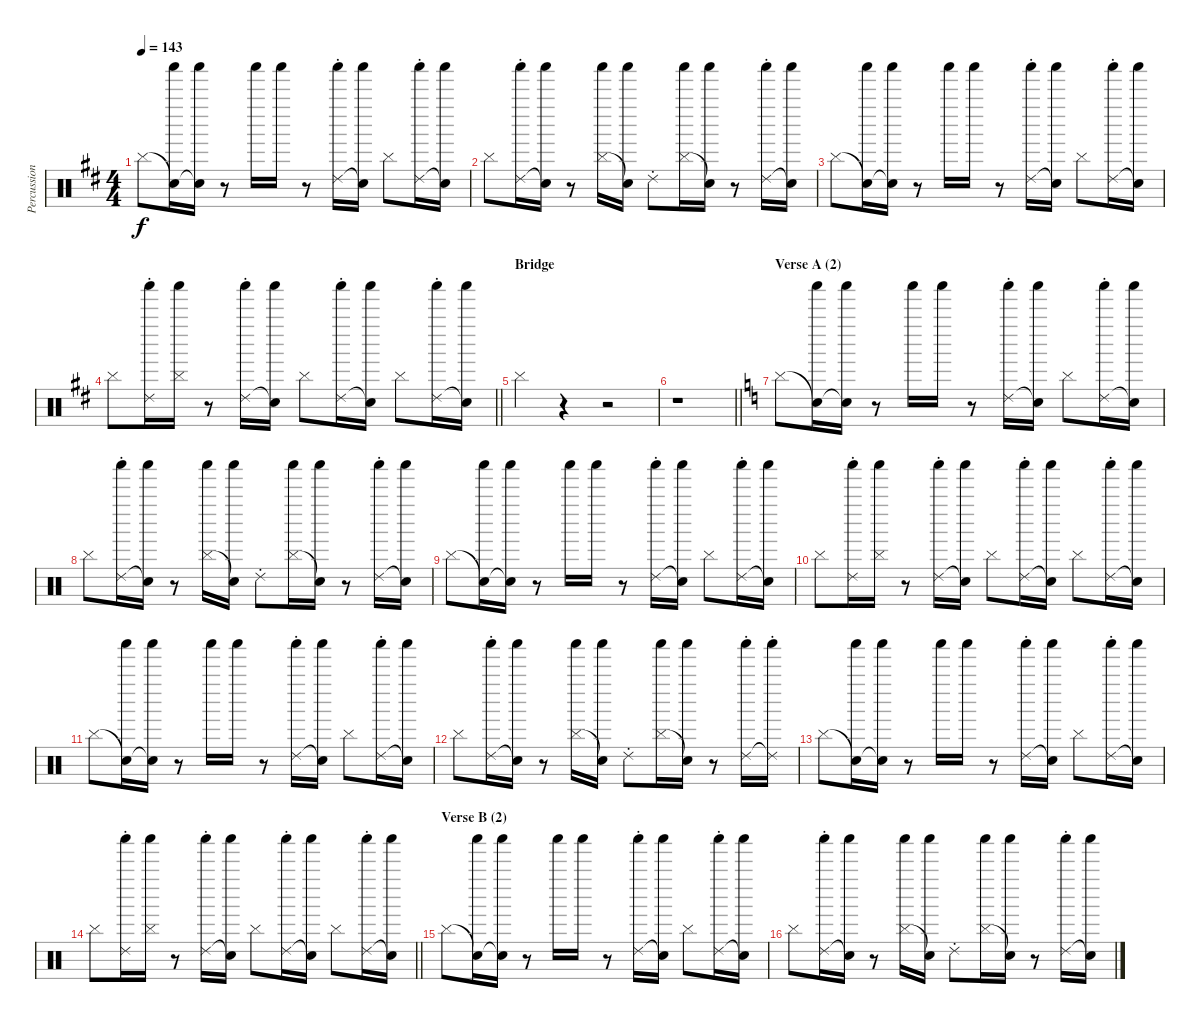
\track ("Percussion" "Percussion") {instrument percussion}
\staff {score}
\articulation defaults
\ts (4 4)
\tempo 143
\clef neutral
\ks d "Cymbal (hit)".8{dy f}
("Snare (hit)"{t} "Shaker (hit)").16 ("Snare (hit)"{t} "Shaker (hit)").16 r.8 "Shaker (hit)".16 "Shaker (hit)".16 r.8 ("Ride (choke) 2" "Shaker (hit)").16 ("Snare (hit)"{t} "Shaker (hit)").16 "Cymbal (hit)".8 ("Ride (choke) 2" "Shaker (hit)").16 ("Snare (hit)"{t} "Shaker (hit)").16 |
"Cymbal (hit)".8 ("Ride (choke) 2" "Shaker (hit)").16 ("Snare (hit)"{t} "Shaker (hit)").16 r.8 ("Cymbal (hit)" "Shaker (hit)").16 ("Snare (hit)"{t} "Shaker (hit)").16 "Ride (choke) 2".8 ("Cymbal (hit)" "Shaker (hit)").16 ("Snare (hit)"{t} "Shaker (hit)").16 r.8 ("Ride (choke) 2" "Shaker (hit)").16 ("Snare (hit)"{t} "Shaker (hit)").16 |
"Cymbal (hit)".8 ("Snare (hit)"{t} "Shaker (hit)").16 ("Snare (hit)"{t} "Shaker (hit)").16 r.8 "Shaker (hit)".16 "Shaker (hit)".16 r.8 ("Ride (choke) 2" "Shaker (hit)").16 ("Snare (hit)"{t} "Shaker (hit)").16 "Cymbal (hit)".8 ("Ride (choke) 2" "Shaker (hit)").16 ("Snare (hit)"{t} "Shaker (hit)").16 |
\barLineRight lightlight "Cymbal (hit)".8
("Ride (choke) 2" "Shaker (hit)").16 ("Cymbal (hit)" "Shaker (hit)").16 r.8 ("Ride (choke) 2" "Shaker (hit)").16 ("Snare (hit)"{t} "Shaker (hit)").16 "Cymbal (hit)".8 ("Ride (choke) 2" "Shaker (hit)").16 ("Snare (hit)"{t} "Shaker (hit)").16 "Cymbal (hit)".8 ("Ride (choke) 2" "Shaker (hit)").16 ("Snare (hit)"{t} "Shaker (hit)").16 |
\section ("" "Bridge")
"Cymbal (hit)".4 r.4 r.2 |
\barLineRight lightlight
r.1 |
\section ("" "Verse A (2)")
\ks aminor "Cymbal (hit)".8
("Snare (hit)"{t} "Shaker (hit)").16 ("Snare (hit)"{t} "Shaker (hit)").16 r.8 "Shaker (hit)".16 "Shaker (hit)".16 r.8 ("Ride (choke) 2" "Shaker (hit)").16 ("Snare (hit)"{t} "Shaker (hit)").16 "Cymbal (hit)".8 ("Ride (choke) 2" "Shaker (hit)").16 ("Snare (hit)"{t} "Shaker (hit)").16 |
"Cymbal (hit)".8 ("Ride (choke) 2" "Shaker (hit)").16 ("Snare (hit)"{t} "Shaker (hit)").16 r.8 ("Cymbal (hit)" "Shaker (hit)").16 ("Snare (hit)"{t} "Shaker (hit)").16 "Ride (choke) 2".8 ("Cymbal (hit)" "Shaker (hit)").16 ("Snare (hit)"{t} "Shaker (hit)").16 r.8 ("Ride (choke) 2" "Shaker (hit)").16 ("Snare (hit)"{t} "Shaker (hit)").16 |
"Cymbal (hit)".8 ("Snare (hit)"{t} "Shaker (hit)").16 ("Snare (hit)"{t} "Shaker (hit)").16 r.8 "Shaker (hit)".16 "Shaker (hit)".16 r.8 ("Ride (choke) 2" "Shaker (hit)").16 ("Snare (hit)"{t} "Shaker (hit)").16 "Cymbal (hit)".8 ("Ride (choke) 2" "Shaker (hit)").16 ("Snare (hit)"{t} "Shaker (hit)").16 |
"Cymbal (hit)".8 ("Ride (choke) 2" "Shaker (hit)").16 ("Cymbal (hit)" "Shaker (hit)").16 r.8 ("Ride (choke) 2" "Shaker (hit)").16 ("Snare (hit)"{t} "Shaker (hit)").16 "Cymbal (hit)".8 ("Ride (choke) 2" "Shaker (hit)").16 ("Snare (hit)"{t} "Shaker (hit)").16 "Cymbal (hit)".8 ("Ride (choke) 2" "Shaker (hit)").16 ("Snare (hit)"{t} "Shaker (hit)").16 |
"Cymbal (hit)".8 ("Snare (hit)"{t} "Shaker (hit)").16 ("Snare (hit)"{t} "Shaker (hit)").16 r.8 "Shaker (hit)".16 "Shaker (hit)".16 r.8 ("Ride (choke) 2" "Shaker (hit)").16 ("Snare (hit)"{t} "Shaker (hit)").16 "Cymbal (hit)".8 ("Ride (choke) 2" "Shaker (hit)").16 ("Snare (hit)"{t} "Shaker (hit)").16 |
"Cymbal (hit)".8 ("Ride (choke) 2" "Shaker (hit)").16 ("Snare (hit)"{t} "Shaker (hit)").16 r.8 ("Cymbal (hit)" "Shaker (hit)").16 ("Snare (hit)"{t} "Shaker (hit)").16 "Ride (choke) 2".8 ("Cymbal (hit)" "Shaker (hit)").16 ("Snare (hit)"{t} "Shaker (hit)").16 r.8 ("Ride (choke) 2" "Shaker (hit)").16 ("Ride (choke) 2"{t} "Shaker (hit)").16 |
"Cymbal (hit)".8 ("Snare (hit)"{t} "Shaker (hit)").16 ("Snare (hit)"{t} "Shaker (hit)").16 r.8 "Shaker (hit)".16 "Shaker (hit)".16 r.8 ("Ride (choke) 2" "Shaker (hit)").16 ("Snare (hit)"{t} "Shaker (hit)").16 "Cymbal (hit)".8 ("Ride (choke) 2" "Shaker (hit)").16 ("Snare (hit)"{t} "Shaker (hit)").16 |
\barLineRight lightlight "Cymbal (hit)".8
("Ride (choke) 2" "Shaker (hit)").16 ("Cymbal (hit)" "Shaker (hit)").16 r.8 ("Ride (choke) 2" "Shaker (hit)").16 ("Snare (hit)"{t} "Shaker (hit)").16 "Cymbal (hit)".8 ("Ride (choke) 2" "Shaker (hit)").16 ("Snare (hit)"{t} "Shaker (hit)").16 "Cymbal (hit)".8 ("Ride (choke) 2" "Shaker (hit)").16 ("Snare (hit)"{t} "Shaker (hit)").16 |
\section ("" "Verse B (2)")
"Cymbal (hit)".8 ("Snare (hit)"{t} "Shaker (hit)").16 ("Snare (hit)"{t} "Shaker (hit)").16 r.8 "Shaker (hit)".16 "Shaker (hit)".16 r.8 ("Ride (choke) 2" "Shaker (hit)").16 ("Snare (hit)"{t} "Shaker (hit)").16 "Cymbal (hit)".8 ("Ride (choke) 2" "Shaker (hit)").16 ("Snare (hit)"{t} "Shaker (hit)").16 |
"Cymbal (hit)".8 ("Ride (choke) 2" "Shaker (hit)").16 ("Snare (hit)"{t} "Shaker (hit)").16 r.8 ("Cymbal (hit)" "Shaker (hit)").16 ("Snare (hit)"{t} "Shaker (hit)").16 "Ride (choke) 2".8 ("Cymbal (hit)" "Shaker (hit)").16 ("Snare (hit)"{t} "Shaker (hit)").16 r.8 ("Ride (choke) 2" "Shaker (hit)").16 ("Snare (hit)"{t} "Shaker (hit)").16
